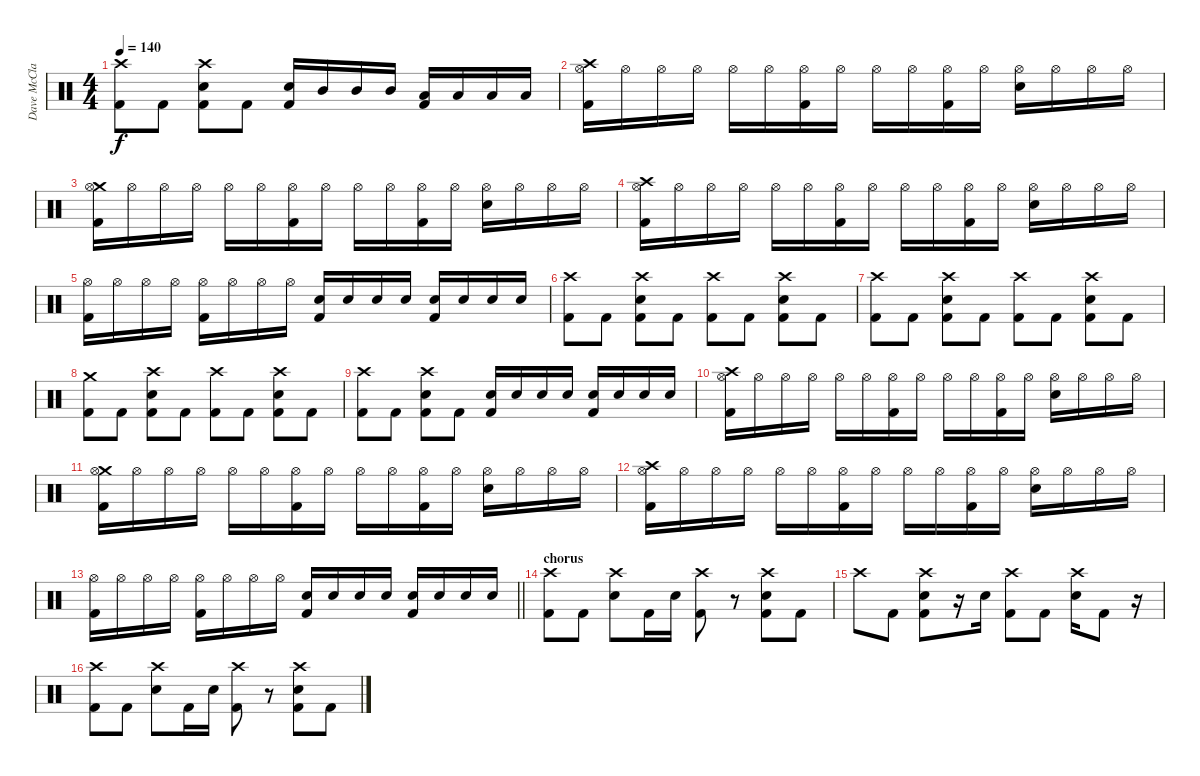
\track ("Dave McClain" "Dave McCla") {solo instrument percussion}
\staff {score}
\articulation defaults
\ts (4 4)
\tempo 140
\clef neutral
\ks c
("Crash high (hit)" "Kick (hit) 2").8{dy f} "Kick (hit) 2".8 ("Crash high (hit)" "Electric Snare (hit)" "Kick (hit) 2").8 "Kick (hit) 2".8 ("Electric Snare (hit)" "Kick (hit) 2").16 "Mid Tom (hit)".16 "Mid Tom (hit)".16 "Mid Tom (hit)".16 ("Low Tom (hit)" "Kick (hit) 2").16 "Low Tom (hit)".16 "Low Floor Tom (hit)".16 "Low Floor Tom (hit)".16 |
("Crash high (hit)" "Hi-Hat (open)" "Kick (hit) 2").16 "Hi-Hat (open)".16 "Hi-Hat (open)".16 "Hi-Hat (open)".16 "Hi-Hat (open)".16 "Hi-Hat (open)".16 ("Hi-Hat (open)" "Kick (hit) 2").16 "Hi-Hat (open)".16 "Hi-Hat (open)".16 "Hi-Hat (open)".16 ("Hi-Hat (open)" "Kick (hit) 2").16 "Hi-Hat (open)".16 ("Hi-Hat (open)" "Electric Snare (hit)").16 "Hi-Hat (open)".16 "Hi-Hat (open)".16 "Hi-Hat (open)".16 |
("Crash medium (hit)" "Hi-Hat (open)" "Kick (hit) 2").16 "Hi-Hat (open)".16 "Hi-Hat (open)".16 "Hi-Hat (open)".16 "Hi-Hat (open)".16 "Hi-Hat (open)".16 ("Hi-Hat (open)" "Kick (hit) 2").16 "Hi-Hat (open)".16 "Hi-Hat (open)".16 "Hi-Hat (open)".16 ("Hi-Hat (open)" "Kick (hit) 2").16 "Hi-Hat (open)".16 ("Hi-Hat (open)" "Electric Snare (hit)").16 "Hi-Hat (open)".16 "Hi-Hat (open)".16 "Hi-Hat (open)".16 |
("Crash high (hit)" "Hi-Hat (open)" "Kick (hit) 2").16 "Hi-Hat (open)".16 "Hi-Hat (open)".16 "Hi-Hat (open)".16 "Hi-Hat (open)".16 "Hi-Hat (open)".16 ("Hi-Hat (open)" "Kick (hit) 2").16 "Hi-Hat (open)".16 "Hi-Hat (open)".16 "Hi-Hat (open)".16 ("Hi-Hat (open)" "Kick (hit) 2").16 "Hi-Hat (open)".16 ("Hi-Hat (open)" "Electric Snare (hit)").16 "Hi-Hat (open)".16 "Hi-Hat (open)".16 "Hi-Hat (open)".16 |
("Hi-Hat (open)" "Kick (hit) 2").16 "Hi-Hat (open)".16 "Hi-Hat (open)".16 "Hi-Hat (open)".16 ("Hi-Hat (open)" "Kick (hit) 2").16 "Hi-Hat (open)".16 "Hi-Hat (open)".16 "Hi-Hat (open)".16 ("Electric Snare (hit)" "Kick (hit) 2").16 "Electric Snare (hit)".16 "Electric Snare (hit)".16 "Electric Snare (hit)".16 ("Electric Snare (hit)" "Kick (hit) 2").16 "Electric Snare (hit)".16 "Electric Snare (hit)".16 "Electric Snare (hit)".16 |
("Crash high (hit)" "Kick (hit) 2").8 "Kick (hit) 2".8 ("Crash high (hit)" "Electric Snare (hit)" "Kick (hit) 2").8 "Kick (hit) 2".8 ("Crash high (hit)" "Kick (hit) 2").8 "Kick (hit) 2".8 ("Crash high (hit)" "Electric Snare (hit)" "Kick (hit) 2").8 "Kick (hit) 2".8 |
("Crash high (hit)" "Kick (hit) 2").8 "Kick (hit) 2".8 ("Crash high (hit)" "Electric Snare (hit)" "Kick (hit) 2").8 "Kick (hit) 2".8 ("Crash high (hit)" "Kick (hit) 2").8 "Kick (hit) 2".8 ("Crash high (hit)" "Electric Snare (hit)" "Kick (hit) 2").8 "Kick (hit) 2".8 |
("Crash medium (hit)" "Kick (hit) 2").8 "Kick (hit) 2".8 ("Crash high (hit)" "Electric Snare (hit)" "Kick (hit) 2").8 "Kick (hit) 2".8 ("Crash high (hit)" "Kick (hit) 2").8 "Kick (hit) 2".8 ("Crash high (hit)" "Electric Snare (hit)" "Kick (hit) 2").8 "Kick (hit) 2".8 |
("Crash high (hit)" "Kick (hit) 2").8 "Kick (hit) 2".8 ("Crash high (hit)" "Electric Snare (hit)" "Kick (hit) 2").8 "Kick (hit) 2".8 ("Electric Snare (hit)" "Kick (hit) 2").16 "Electric Snare (hit)".16 "Electric Snare (hit)".16 "Electric Snare (hit)".16 ("Electric Snare (hit)" "Kick (hit) 2").16 "Electric Snare (hit)".16 "Electric Snare (hit)".16 "Electric Snare (hit)".16 |
("Crash high (hit)" "Hi-Hat (open)" "Kick (hit) 2").16 "Hi-Hat (open)".16 "Hi-Hat (open)".16 "Hi-Hat (open)".16 "Hi-Hat (open)".16 "Hi-Hat (open)".16 ("Hi-Hat (open)" "Kick (hit) 2").16 "Hi-Hat (open)".16 "Hi-Hat (open)".16 "Hi-Hat (open)".16 ("Hi-Hat (open)" "Kick (hit) 2").16 "Hi-Hat (open)".16 ("Hi-Hat (open)" "Electric Snare (hit)").16 "Hi-Hat (open)".16 "Hi-Hat (open)".16 "Hi-Hat (open)".16 |
("Crash medium (hit)" "Hi-Hat (open)" "Kick (hit) 2").16 "Hi-Hat (open)".16 "Hi-Hat (open)".16 "Hi-Hat (open)".16 "Hi-Hat (open)".16 "Hi-Hat (open)".16 ("Hi-Hat (open)" "Kick (hit) 2").16 "Hi-Hat (open)".16 "Hi-Hat (open)".16 "Hi-Hat (open)".16 ("Hi-Hat (open)" "Kick (hit) 2").16 "Hi-Hat (open)".16 ("Hi-Hat (open)" "Electric Snare (hit)").16 "Hi-Hat (open)".16 "Hi-Hat (open)".16 "Hi-Hat (open)".16 |
("Crash high (hit)" "Hi-Hat (open)" "Kick (hit) 2").16 "Hi-Hat (open)".16 "Hi-Hat (open)".16 "Hi-Hat (open)".16 "Hi-Hat (open)".16 "Hi-Hat (open)".16 ("Hi-Hat (open)" "Kick (hit) 2").16 "Hi-Hat (open)".16 "Hi-Hat (open)".16 "Hi-Hat (open)".16 ("Hi-Hat (open)" "Kick (hit) 2").16 "Hi-Hat (open)".16 ("Hi-Hat (open)" "Electric Snare (hit)").16 "Hi-Hat (open)".16 "Hi-Hat (open)".16 "Hi-Hat (open)".16 |
\barLineRight lightlight
("Hi-Hat (open)" "Kick (hit) 2").16 "Hi-Hat (open)".16 "Hi-Hat (open)".16 "Hi-Hat (open)".16 ("Hi-Hat (open)" "Kick (hit) 2").16 "Hi-Hat (open)".16 "Hi-Hat (open)".16 "Hi-Hat (open)".16 ("Electric Snare (hit)" "Kick (hit) 2").16 "Electric Snare (hit)".16 "Electric Snare (hit)".16 "Electric Snare (hit)".16 ("Electric Snare (hit)" "Kick (hit) 2").16 "Electric Snare (hit)".16 "Electric Snare (hit)".16 "Electric Snare (hit)".16 |
\section ("" "chorus")
("Crash high (hit)" "Kick (hit) 2").8 "Kick (hit) 2".8 ("Crash high (hit)" "Electric Snare (hit)").8 "Kick (hit) 2".16 "Electric Snare (hit)".16 ("Crash high (hit)" "Kick (hit) 2").8 r.8 ("Crash high (hit)" "Electric Snare (hit)" "Kick (hit) 2").8 "Kick (hit) 2".8 |
"Crash high (hit)".8 "Kick (hit) 2".8 ("Crash high (hit)" "Electric Snare (hit)" "Kick (hit) 2").8 r.16 "Electric Snare (hit)".16 ("Crash high (hit)" "Kick (hit) 2").8 "Kick (hit) 2".8 ("Crash high (hit)" "Electric Snare (hit)").16 "Kick (hit) 2".8 r.16 |
("Crash high (hit)" "Kick (hit) 2").8 "Kick (hit) 2".8 ("Crash high (hit)" "Electric Snare (hit)").8 "Kick (hit) 2".16 "Electric Snare (hit)".16 ("Crash high (hit)" "Kick (hit) 2").8 r.8 ("Crash high (hit)" "Electric Snare (hit)" "Kick (hit) 2").8 "Kick (hit) 2".8
